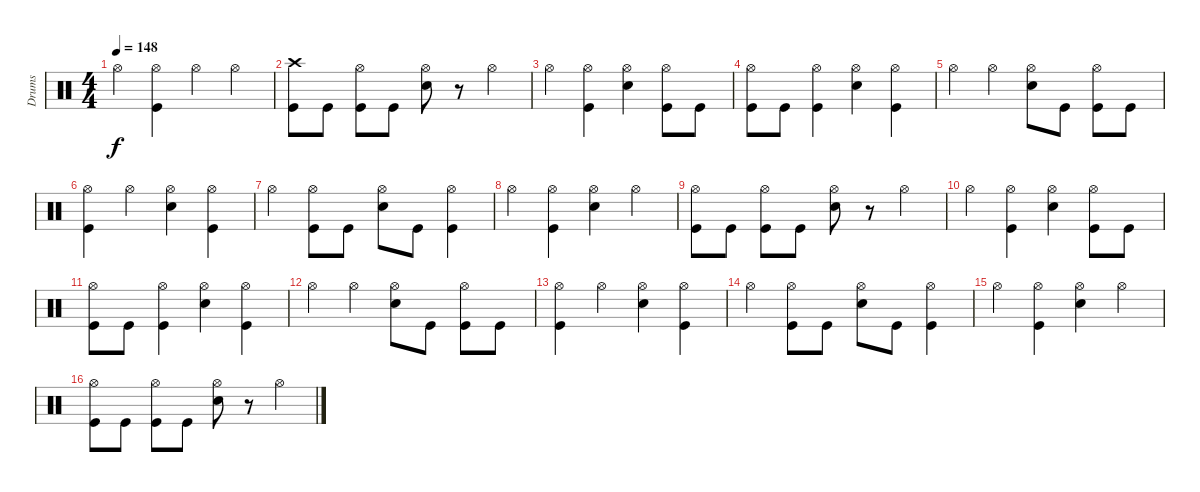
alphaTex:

\track ("Drums" "Drums") {instrument percussion}
\staff {score}
\articulation defaults
\ts (4 4)
\tempo 148
\clef neutral
\ks c "Hi-Hat (open)".4{dy f}
("Hi-Hat (open)" "Kick (hit)").4 "Hi-Hat (open)".4 "Hi-Hat (open)".4 |
("Crash high (hit)" "Kick (hit)").8 "Kick (hit)".8 ("Hi-Hat (open)" "Kick (hit)").8 "Kick (hit)".8 ("Hi-Hat (open)" "Snare (hit) 2").8 r.8 "Hi-Hat (open)".4 |
"Hi-Hat (open)".4 ("Hi-Hat (open)" "Kick (hit)").4 ("Hi-Hat (open)" "Snare (hit) 2").4 ("Hi-Hat (open)" "Kick (hit)").8 "Kick (hit)".8 |
("Hi-Hat (open)" "Kick (hit)").8 "Kick (hit)".8 ("Hi-Hat (open)" "Kick (hit)").4 ("Hi-Hat (open)" "Snare (hit) 2").4 ("Hi-Hat (open)" "Kick (hit)").4 |
"Hi-Hat (open)".4 "Hi-Hat (open)".4 ("Hi-Hat (open)" "Snare (hit) 2").8 "Kick (hit)".8 ("Hi-Hat (open)" "Kick (hit)").8 "Kick (hit)".8 |
("Hi-Hat (open)" "Kick (hit)").4 "Hi-Hat (open)".4 ("Hi-Hat (open)" "Snare (hit) 2").4 ("Hi-Hat (open)" "Kick (hit)").4 |
"Hi-Hat (open)".4 ("Hi-Hat (open)" "Kick (hit)").8 "Kick (hit)".8 ("Hi-Hat (open)" "Snare (hit) 2").8 "Kick (hit)".8 ("Hi-Hat (open)" "Kick (hit)").4 |
"Hi-Hat (open)".4 ("Hi-Hat (open)" "Kick (hit)").4 ("Hi-Hat (open)" "Snare (hit) 2").4 "Hi-Hat (open)".4 |
("Hi-Hat (open)" "Kick (hit)").8 "Kick (hit)".8 ("Hi-Hat (open)" "Kick (hit)").8 "Kick (hit)".8 ("Hi-Hat (open)" "Snare (hit) 2").8 r.8 "Hi-Hat (open)".4 |
"Hi-Hat (open)".4 ("Hi-Hat (open)" "Kick (hit)").4 ("Hi-Hat (open)" "Snare (hit) 2").4 ("Hi-Hat (open)" "Kick (hit)").8 "Kick (hit)".8 |
("Hi-Hat (open)" "Kick (hit)").8 "Kick (hit)".8 ("Hi-Hat (open)" "Kick (hit)").4 ("Hi-Hat (open)" "Snare (hit) 2").4 ("Hi-Hat (open)" "Kick (hit)").4 |
"Hi-Hat (open)".4 "Hi-Hat (open)".4 ("Hi-Hat (open)" "Snare (hit) 2").8 "Kick (hit)".8 ("Hi-Hat (open)" "Kick (hit)").8 "Kick (hit)".8 |
("Hi-Hat (open)" "Kick (hit)").4 "Hi-Hat (open)".4 ("Hi-Hat (open)" "Snare (hit) 2").4 ("Hi-Hat (open)" "Kick (hit)").4 |
"Hi-Hat (open)".4 ("Hi-Hat (open)" "Kick (hit)").8 "Kick (hit)".8 ("Hi-Hat (open)" "Snare (hit) 2").8 "Kick (hit)".8 ("Hi-Hat (open)" "Kick (hit)").4 |
"Hi-Hat (open)".4 ("Hi-Hat (open)" "Kick (hit)").4 ("Hi-Hat (open)" "Snare (hit) 2").4 "Hi-Hat (open)".4 |
("Hi-Hat (open)" "Kick (hit)").8 "Kick (hit)".8 ("Hi-Hat (open)" "Kick (hit)").8 "Kick (hit)".8 ("Hi-Hat (open)" "Snare (hit) 2").8 r.8 "Hi-Hat (open)".4
